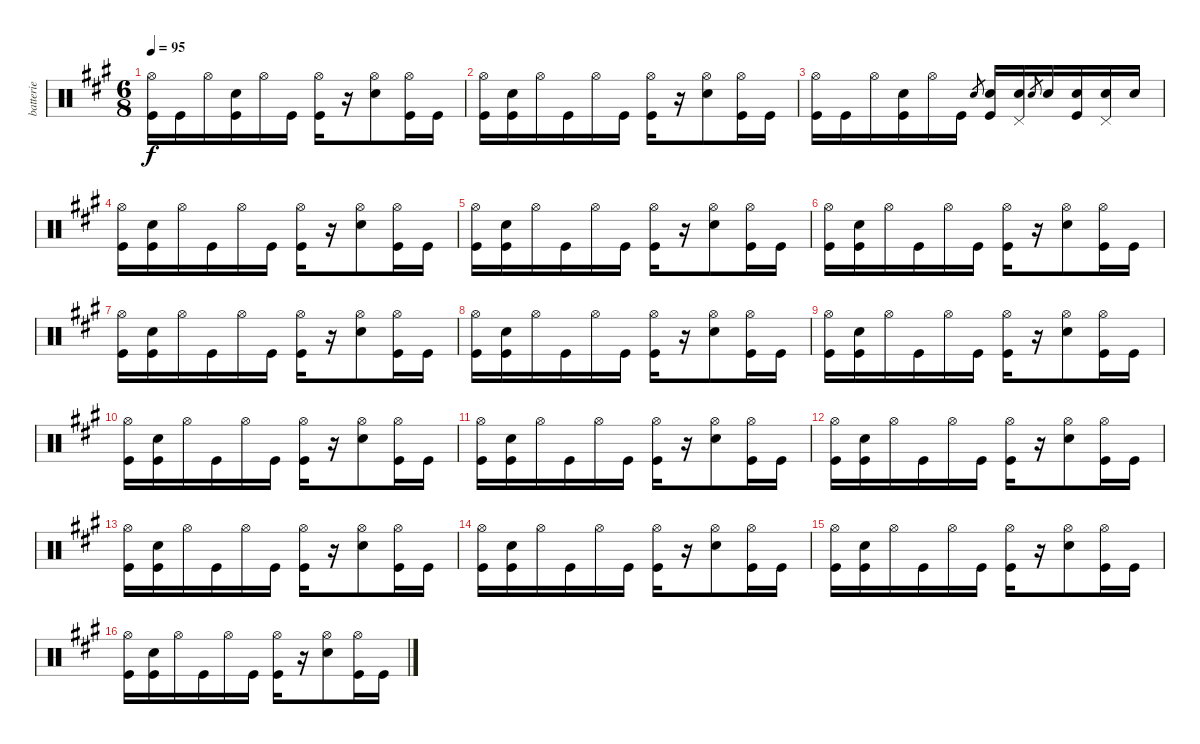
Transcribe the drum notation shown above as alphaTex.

\track ("batterie" "batterie") {instrument percussion}
\staff {score}
\articulation defaults
\ts (6 8)
\tempo 95
\clef neutral
\ks a
("Hi-Hat (open)" "Kick (hit)").16{dy f} "Kick (hit)".16 "Hi-Hat (open)".16 ("Electric Snare (hit)" "Kick (hit)").16 "Hi-Hat (open)".16 "Kick (hit)".16 ("Hi-Hat (open)" "Kick (hit)").16 r.16 ("Hi-Hat (open)" "Electric Snare (hit)").8 ("Hi-Hat (open)" "Kick (hit)").16 "Kick (hit)".16 |
("Hi-Hat (open)" "Kick (hit)").16 ("Electric Snare (hit)" "Kick (hit)").16 "Hi-Hat (open)".16 "Kick (hit)".16 "Hi-Hat (open)".16 "Kick (hit)".16 ("Hi-Hat (open)" "Kick (hit)").16 r.16 ("Hi-Hat (open)" "Electric Snare (hit)").8 ("Hi-Hat (open)" "Kick (hit)").16 "Kick (hit)".16 |
("Hi-Hat (open)" "Kick (hit)").16 "Kick (hit)".16 "Hi-Hat (open)".16 ("Electric Snare (hit)" "Kick (hit)").16 "Hi-Hat (open)".16 "Kick (hit)".16 "Electric Snare (hit)".8{gr} ("Electric Snare (hit)" "Kick (hit)").16 ("Pedal Hi-Hat (hit)" "Electric Snare (hit)").16 "Electric Snare (hit)".8{gr} "Electric Snare (hit)".16 ("Electric Snare (hit)" "Kick (hit)").16 ("Pedal Hi-Hat (hit)" "Electric Snare (hit)").16 "Electric Snare (hit)".16 |
("Hi-Hat (open)" "Kick (hit)").16 ("Electric Snare (hit)" "Kick (hit)").16 "Hi-Hat (open)".16 "Kick (hit)".16 "Hi-Hat (open)".16 "Kick (hit)".16 ("Hi-Hat (open)" "Kick (hit)").16 r.16 ("Hi-Hat (open)" "Electric Snare (hit)").8 ("Hi-Hat (open)" "Kick (hit)").16 "Kick (hit)".16 |
("Hi-Hat (open)" "Kick (hit)").16 ("Electric Snare (hit)" "Kick (hit)").16 "Hi-Hat (open)".16 "Kick (hit)".16 "Hi-Hat (open)".16 "Kick (hit)".16 ("Hi-Hat (open)" "Kick (hit)").16 r.16 ("Hi-Hat (open)" "Electric Snare (hit)").8 ("Hi-Hat (open)" "Kick (hit)").16 "Kick (hit)".16 |
("Hi-Hat (open)" "Kick (hit)").16 ("Electric Snare (hit)" "Kick (hit)").16 "Hi-Hat (open)".16 "Kick (hit)".16 "Hi-Hat (open)".16 "Kick (hit)".16 ("Hi-Hat (open)" "Kick (hit)").16 r.16 ("Hi-Hat (open)" "Electric Snare (hit)").8 ("Hi-Hat (open)" "Kick (hit)").16 "Kick (hit)".16 |
("Hi-Hat (open)" "Kick (hit)").16 ("Electric Snare (hit)" "Kick (hit)").16 "Hi-Hat (open)".16 "Kick (hit)".16 "Hi-Hat (open)".16 "Kick (hit)".16 ("Hi-Hat (open)" "Kick (hit)").16 r.16 ("Hi-Hat (open)" "Electric Snare (hit)").8 ("Hi-Hat (open)" "Kick (hit)").16 "Kick (hit)".16 |
("Hi-Hat (open)" "Kick (hit)").16 ("Electric Snare (hit)" "Kick (hit)").16 "Hi-Hat (open)".16 "Kick (hit)".16 "Hi-Hat (open)".16 "Kick (hit)".16 ("Hi-Hat (open)" "Kick (hit)").16 r.16 ("Hi-Hat (open)" "Electric Snare (hit)").8 ("Hi-Hat (open)" "Kick (hit)").16 "Kick (hit)".16 |
("Hi-Hat (open)" "Kick (hit)").16 ("Electric Snare (hit)" "Kick (hit)").16 "Hi-Hat (open)".16 "Kick (hit)".16 "Hi-Hat (open)".16 "Kick (hit)".16 ("Hi-Hat (open)" "Kick (hit)").16 r.16 ("Hi-Hat (open)" "Electric Snare (hit)").8 ("Hi-Hat (open)" "Kick (hit)").16 "Kick (hit)".16 |
("Hi-Hat (open)" "Kick (hit)").16 ("Electric Snare (hit)" "Kick (hit)").16 "Hi-Hat (open)".16 "Kick (hit)".16 "Hi-Hat (open)".16 "Kick (hit)".16 ("Hi-Hat (open)" "Kick (hit)").16 r.16 ("Hi-Hat (open)" "Electric Snare (hit)").8 ("Hi-Hat (open)" "Kick (hit)").16 "Kick (hit)".16 |
("Hi-Hat (open)" "Kick (hit)").16 ("Electric Snare (hit)" "Kick (hit)").16 "Hi-Hat (open)".16 "Kick (hit)".16 "Hi-Hat (open)".16 "Kick (hit)".16 ("Hi-Hat (open)" "Kick (hit)").16 r.16 ("Hi-Hat (open)" "Electric Snare (hit)").8 ("Hi-Hat (open)" "Kick (hit)").16 "Kick (hit)".16 |
("Hi-Hat (open)" "Kick (hit)").16 ("Electric Snare (hit)" "Kick (hit)").16 "Hi-Hat (open)".16 "Kick (hit)".16 "Hi-Hat (open)".16 "Kick (hit)".16 ("Hi-Hat (open)" "Kick (hit)").16 r.16 ("Hi-Hat (open)" "Electric Snare (hit)").8 ("Hi-Hat (open)" "Kick (hit)").16 "Kick (hit)".16 |
("Hi-Hat (open)" "Kick (hit)").16 ("Electric Snare (hit)" "Kick (hit)").16 "Hi-Hat (open)".16 "Kick (hit)".16 "Hi-Hat (open)".16 "Kick (hit)".16 ("Hi-Hat (open)" "Kick (hit)").16 r.16 ("Hi-Hat (open)" "Electric Snare (hit)").8 ("Hi-Hat (open)" "Kick (hit)").16 "Kick (hit)".16 |
("Hi-Hat (open)" "Kick (hit)").16 ("Electric Snare (hit)" "Kick (hit)").16 "Hi-Hat (open)".16 "Kick (hit)".16 "Hi-Hat (open)".16 "Kick (hit)".16 ("Hi-Hat (open)" "Kick (hit)").16 r.16 ("Hi-Hat (open)" "Electric Snare (hit)").8 ("Hi-Hat (open)" "Kick (hit)").16 "Kick (hit)".16 |
("Hi-Hat (open)" "Kick (hit)").16 ("Electric Snare (hit)" "Kick (hit)").16 "Hi-Hat (open)".16 "Kick (hit)".16 "Hi-Hat (open)".16 "Kick (hit)".16 ("Hi-Hat (open)" "Kick (hit)").16 r.16 ("Hi-Hat (open)" "Electric Snare (hit)").8 ("Hi-Hat (open)" "Kick (hit)").16 "Kick (hit)".16 |
("Hi-Hat (open)" "Kick (hit)").16 ("Electric Snare (hit)" "Kick (hit)").16 "Hi-Hat (open)".16 "Kick (hit)".16 "Hi-Hat (open)".16 "Kick (hit)".16 ("Hi-Hat (open)" "Kick (hit)").16 r.16 ("Hi-Hat (open)" "Electric Snare (hit)").8 ("Hi-Hat (open)" "Kick (hit)").16 "Kick (hit)".16
